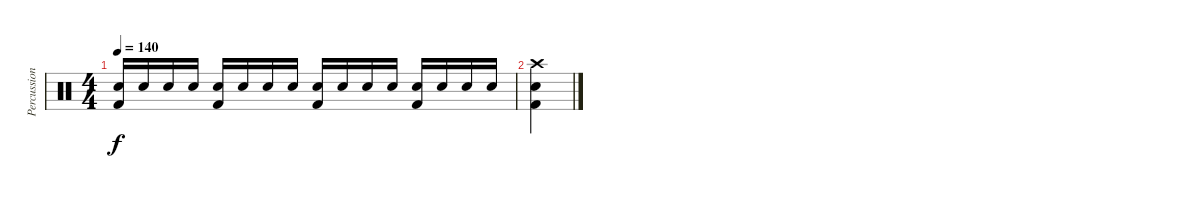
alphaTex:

\track ("Percussion" "Percussion") {instrument percussion}
\staff {score}
\articulation defaults
\ts (4 4)
\tempo 140
\clef neutral
\ks c
("Electric Snare (hit)" "Kick (hit) 2").16{dy f} "Electric Snare (hit)".16 "Electric Snare (hit)".16 "Electric Snare (hit)".16 ("Electric Snare (hit)" "Kick (hit) 2").16 "Electric Snare (hit)".16 "Electric Snare (hit)".16 "Electric Snare (hit)".16 ("Electric Snare (hit)" "Kick (hit) 2").16 "Electric Snare (hit)".16 "Electric Snare (hit)".16 "Electric Snare (hit)".16 ("Electric Snare (hit)" "Kick (hit) 2").16 "Electric Snare (hit)".16 "Electric Snare (hit)".16 "Electric Snare (hit)".16 |
("Crash high (hit)" "Electric Snare (hit)" "Kick (hit) 2").4
